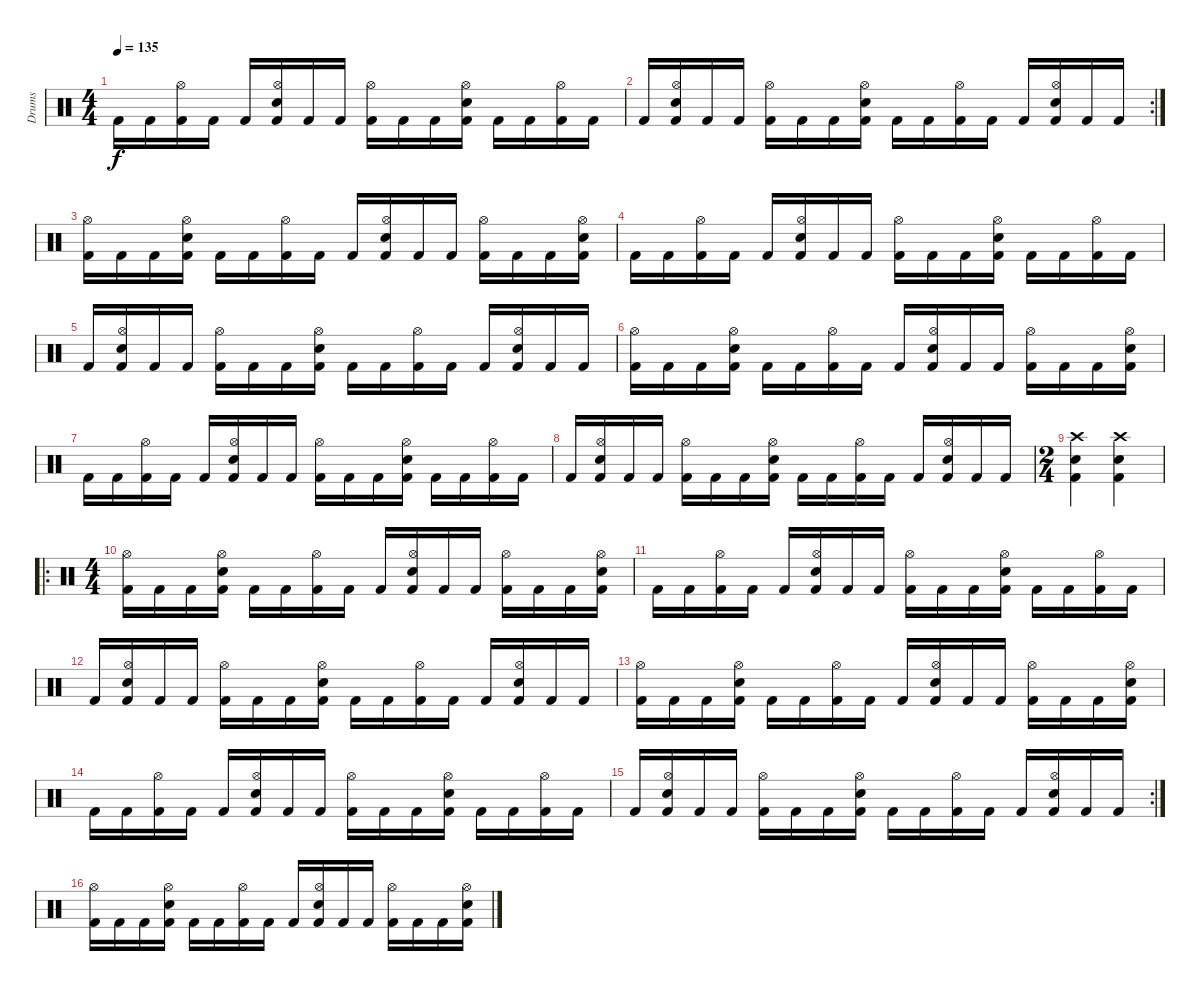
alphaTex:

\track ("Drums" "Drums") {instrument percussion}
\staff {score}
\articulation defaults
\ts (4 4)
\tempo 135
\clef neutral
\ks c "Kick (hit) 2".16{dy f} "Kick (hit) 2".16
("Kick (hit) 2" "Hi-Hat (open)").16 "Kick (hit) 2".16 "Kick (hit) 2".16 ("Kick (hit) 2" "Electric Snare (hit)" "Hi-Hat (open)").16 "Kick (hit) 2".16 "Kick (hit) 2".16 ("Kick (hit) 2" "Hi-Hat (open)").16 "Kick (hit) 2".16 "Kick (hit) 2".16 ("Kick (hit) 2" "Electric Snare (hit)" "Hi-Hat (open)").16 "Kick (hit) 2".16 "Kick (hit) 2".16 ("Kick (hit) 2" "Hi-Hat (open)").16 "Kick (hit) 2".16 |
\rc 2 "Kick (hit) 2".16
("Kick (hit) 2" "Electric Snare (hit)" "Hi-Hat (open)").16 "Kick (hit) 2".16 "Kick (hit) 2".16 ("Kick (hit) 2" "Hi-Hat (open)").16 "Kick (hit) 2".16 "Kick (hit) 2".16 ("Kick (hit) 2" "Electric Snare (hit)" "Hi-Hat (open)").16 "Kick (hit) 2".16 "Kick (hit) 2".16 ("Kick (hit) 2" "Hi-Hat (open)").16 "Kick (hit) 2".16 "Kick (hit) 2".16 ("Kick (hit) 2" "Electric Snare (hit)" "Hi-Hat (open)").16 "Kick (hit) 2".16 "Kick (hit) 2".16 |
("Kick (hit) 2" "Hi-Hat (open)").16 "Kick (hit) 2".16 "Kick (hit) 2".16 ("Kick (hit) 2" "Electric Snare (hit)" "Hi-Hat (open)").16 "Kick (hit) 2".16 "Kick (hit) 2".16 ("Kick (hit) 2" "Hi-Hat (open)").16 "Kick (hit) 2".16 "Kick (hit) 2".16 ("Kick (hit) 2" "Electric Snare (hit)" "Hi-Hat (open)").16 "Kick (hit) 2".16 "Kick (hit) 2".16 ("Kick (hit) 2" "Hi-Hat (open)").16 "Kick (hit) 2".16 "Kick (hit) 2".16 ("Kick (hit) 2" "Electric Snare (hit)" "Hi-Hat (open)").16 |
"Kick (hit) 2".16 "Kick (hit) 2".16 ("Kick (hit) 2" "Hi-Hat (open)").16 "Kick (hit) 2".16 "Kick (hit) 2".16 ("Kick (hit) 2" "Electric Snare (hit)" "Hi-Hat (open)").16 "Kick (hit) 2".16 "Kick (hit) 2".16 ("Kick (hit) 2" "Hi-Hat (open)").16 "Kick (hit) 2".16 "Kick (hit) 2".16 ("Kick (hit) 2" "Electric Snare (hit)" "Hi-Hat (open)").16 "Kick (hit) 2".16 "Kick (hit) 2".16 ("Kick (hit) 2" "Hi-Hat (open)").16 "Kick (hit) 2".16 |
"Kick (hit) 2".16 ("Kick (hit) 2" "Electric Snare (hit)" "Hi-Hat (open)").16 "Kick (hit) 2".16 "Kick (hit) 2".16 ("Kick (hit) 2" "Hi-Hat (open)").16 "Kick (hit) 2".16 "Kick (hit) 2".16 ("Kick (hit) 2" "Electric Snare (hit)" "Hi-Hat (open)").16 "Kick (hit) 2".16 "Kick (hit) 2".16 ("Kick (hit) 2" "Hi-Hat (open)").16 "Kick (hit) 2".16 "Kick (hit) 2".16 ("Kick (hit) 2" "Electric Snare (hit)" "Hi-Hat (open)").16 "Kick (hit) 2".16 "Kick (hit) 2".16 |
("Kick (hit) 2" "Hi-Hat (open)").16 "Kick (hit) 2".16 "Kick (hit) 2".16 ("Kick (hit) 2" "Electric Snare (hit)" "Hi-Hat (open)").16 "Kick (hit) 2".16 "Kick (hit) 2".16 ("Kick (hit) 2" "Hi-Hat (open)").16 "Kick (hit) 2".16 "Kick (hit) 2".16 ("Kick (hit) 2" "Electric Snare (hit)" "Hi-Hat (open)").16 "Kick (hit) 2".16 "Kick (hit) 2".16 ("Kick (hit) 2" "Hi-Hat (open)").16 "Kick (hit) 2".16 "Kick (hit) 2".16 ("Kick (hit) 2" "Hi-Hat (open)" "Electric Snare (hit)").16 |
"Kick (hit) 2".16 "Kick (hit) 2".16 ("Kick (hit) 2" "Hi-Hat (open)").16 "Kick (hit) 2".16 "Kick (hit) 2".16 ("Kick (hit) 2" "Electric Snare (hit)" "Hi-Hat (open)").16 "Kick (hit) 2".16 "Kick (hit) 2".16 ("Kick (hit) 2" "Hi-Hat (open)").16 "Kick (hit) 2".16 "Kick (hit) 2".16 ("Kick (hit) 2" "Electric Snare (hit)" "Hi-Hat (open)").16 "Kick (hit) 2".16 "Kick (hit) 2".16 ("Kick (hit) 2" "Hi-Hat (open)").16 "Kick (hit) 2".16 |
"Kick (hit) 2".16 ("Kick (hit) 2" "Electric Snare (hit)" "Hi-Hat (open)").16 "Kick (hit) 2".16 "Kick (hit) 2".16 ("Kick (hit) 2" "Hi-Hat (open)").16 "Kick (hit) 2".16 "Kick (hit) 2".16 ("Kick (hit) 2" "Electric Snare (hit)" "Hi-Hat (open)").16 "Kick (hit) 2".16 "Kick (hit) 2".16 ("Kick (hit) 2" "Hi-Hat (open)").16 "Kick (hit) 2".16 "Kick (hit) 2".16 ("Kick (hit) 2" "Electric Snare (hit)" "Hi-Hat (open)").16 "Kick (hit) 2".16 "Kick (hit) 2".16 |
\ts (2 4)
("Crash high (hit)" "Electric Snare (hit)" "Kick (hit) 2").4 ("Crash high (hit)" "Electric Snare (hit)" "Kick (hit) 2").4 |
\ro
\ts (4 4)
("Kick (hit) 2" "Hi-Hat (open)").16 "Kick (hit) 2".16 "Kick (hit) 2".16 ("Kick (hit) 2" "Electric Snare (hit)" "Hi-Hat (open)").16 "Kick (hit) 2".16 "Kick (hit) 2".16 ("Kick (hit) 2" "Hi-Hat (open)").16 "Kick (hit) 2".16 "Kick (hit) 2".16 ("Kick (hit) 2" "Electric Snare (hit)" "Hi-Hat (open)").16 "Kick (hit) 2".16 "Kick (hit) 2".16 ("Kick (hit) 2" "Hi-Hat (open)").16 "Kick (hit) 2".16 "Kick (hit) 2".16 ("Kick (hit) 2" "Electric Snare (hit)" "Hi-Hat (open)").16 |
"Kick (hit) 2".16 "Kick (hit) 2".16 ("Kick (hit) 2" "Hi-Hat (open)").16 "Kick (hit) 2".16 "Kick (hit) 2".16 ("Kick (hit) 2" "Electric Snare (hit)" "Hi-Hat (open)").16 "Kick (hit) 2".16 "Kick (hit) 2".16 ("Kick (hit) 2" "Hi-Hat (open)").16 "Kick (hit) 2".16 "Kick (hit) 2".16 ("Kick (hit) 2" "Electric Snare (hit)" "Hi-Hat (open)").16 "Kick (hit) 2".16 "Kick (hit) 2".16 ("Kick (hit) 2" "Hi-Hat (open)").16 "Kick (hit) 2".16 |
"Kick (hit) 2".16 ("Kick (hit) 2" "Electric Snare (hit)" "Hi-Hat (open)").16 "Kick (hit) 2".16 "Kick (hit) 2".16 ("Kick (hit) 2" "Hi-Hat (open)").16 "Kick (hit) 2".16 "Kick (hit) 2".16 ("Kick (hit) 2" "Electric Snare (hit)" "Hi-Hat (open)").16 "Kick (hit) 2".16 "Kick (hit) 2".16 ("Kick (hit) 2" "Hi-Hat (open)").16 "Kick (hit) 2".16 "Kick (hit) 2".16 ("Kick (hit) 2" "Electric Snare (hit)" "Hi-Hat (open)").16 "Kick (hit) 2".16 "Kick (hit) 2".16 |
("Kick (hit) 2" "Hi-Hat (open)").16 "Kick (hit) 2".16 "Kick (hit) 2".16 ("Kick (hit) 2" "Electric Snare (hit)" "Hi-Hat (open)").16 "Kick (hit) 2".16 "Kick (hit) 2".16 ("Kick (hit) 2" "Hi-Hat (open)").16 "Kick (hit) 2".16 "Kick (hit) 2".16 ("Kick (hit) 2" "Electric Snare (hit)" "Hi-Hat (open)").16 "Kick (hit) 2".16 "Kick (hit) 2".16 ("Kick (hit) 2" "Hi-Hat (open)").16 "Kick (hit) 2".16 "Kick (hit) 2".16 ("Kick (hit) 2" "Hi-Hat (open)" "Electric Snare (hit)").16 |
"Kick (hit) 2".16 "Kick (hit) 2".16 ("Kick (hit) 2" "Hi-Hat (open)").16 "Kick (hit) 2".16 "Kick (hit) 2".16 ("Kick (hit) 2" "Electric Snare (hit)" "Hi-Hat (open)").16 "Kick (hit) 2".16 "Kick (hit) 2".16 ("Kick (hit) 2" "Hi-Hat (open)").16 "Kick (hit) 2".16 "Kick (hit) 2".16 ("Kick (hit) 2" "Electric Snare (hit)" "Hi-Hat (open)").16 "Kick (hit) 2".16 "Kick (hit) 2".16 ("Kick (hit) 2" "Hi-Hat (open)").16 "Kick (hit) 2".16 |
\rc 2 "Kick (hit) 2".16
("Kick (hit) 2" "Electric Snare (hit)" "Hi-Hat (open)").16 "Kick (hit) 2".16 "Kick (hit) 2".16 ("Kick (hit) 2" "Hi-Hat (open)").16 "Kick (hit) 2".16 "Kick (hit) 2".16 ("Kick (hit) 2" "Electric Snare (hit)" "Hi-Hat (open)").16 "Kick (hit) 2".16 "Kick (hit) 2".16 ("Kick (hit) 2" "Hi-Hat (open)").16 "Kick (hit) 2".16 "Kick (hit) 2".16 ("Kick (hit) 2" "Electric Snare (hit)" "Hi-Hat (open)").16 "Kick (hit) 2".16 "Kick (hit) 2".16 |
("Kick (hit) 2" "Hi-Hat (open)").16 "Kick (hit) 2".16 "Kick (hit) 2".16 ("Kick (hit) 2" "Electric Snare (hit)" "Hi-Hat (open)").16 "Kick (hit) 2".16 "Kick (hit) 2".16 ("Kick (hit) 2" "Hi-Hat (open)").16 "Kick (hit) 2".16 "Kick (hit) 2".16 ("Kick (hit) 2" "Electric Snare (hit)" "Hi-Hat (open)").16 "Kick (hit) 2".16 "Kick (hit) 2".16 ("Kick (hit) 2" "Hi-Hat (open)").16 "Kick (hit) 2".16 "Kick (hit) 2".16 ("Kick (hit) 2" "Electric Snare (hit)" "Hi-Hat (open)").16
